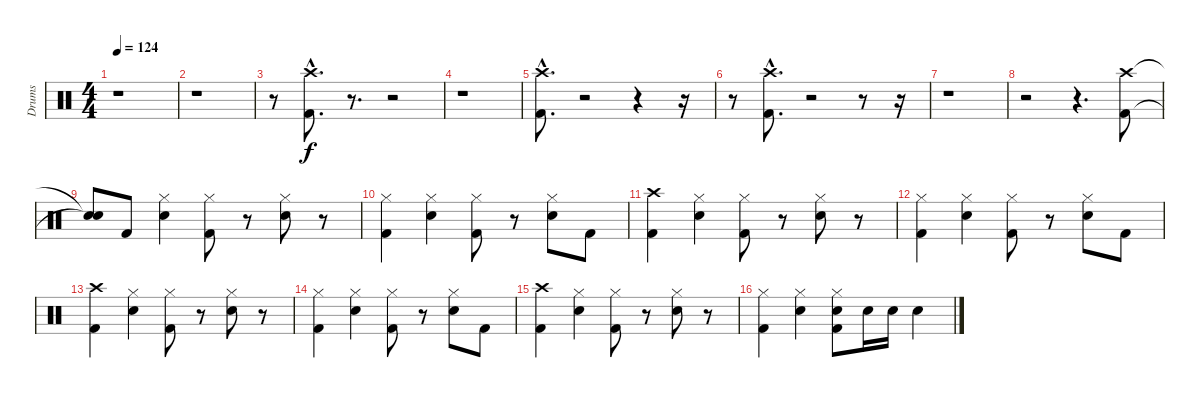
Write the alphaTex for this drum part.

\track ("Drums" "Drums") {instrument percussion}
\staff {score}
\articulation defaults
\ts (4 4)
\tempo 124
\clef neutral
\ks c
r.1{dy f} |
r.1 |
r.8 ("Crash high (hit)"{hac} "Kick (hit) 2"{hac}).8{d} r.8{d} r.2 |
r.1 |
("Crash high (hit)"{hac} "Kick (hit) 2"{hac}).8{d} r.2 r.4 r.16 |
r.8 ("Crash high (hit)"{hac} "Kick (hit) 2"{hac}).8{d} r.2 r.8 r.16 |
r.1 |
r.2 r.4{d} ("Crash high (hit)" "Kick (hit) 2").8 |
("Snare (hit)"{t} "Snare (hit)"{t}).8 "Kick (hit) 2".8 ("Hi-Hat (closed)" "Snare (hit) 2").4 ("Hi-Hat (closed)" "Kick (hit) 2").8 r.8 ("Hi-Hat (closed)" "Snare (hit) 2").8 r.8 |
("Hi-Hat (closed)" "Kick (hit) 2").4 ("Hi-Hat (closed)" "Snare (hit) 2").4 ("Hi-Hat (closed)" "Kick (hit) 2").8 r.8 ("Hi-Hat (closed)" "Snare (hit) 2").8 "Kick (hit) 2".8 |
("Crash high (hit)" "Kick (hit) 2").4 ("Hi-Hat (closed)" "Snare (hit) 2").4 ("Hi-Hat (closed)" "Kick (hit) 2").8 r.8 ("Hi-Hat (closed)" "Snare (hit) 2").8 r.8 |
("Hi-Hat (closed)" "Kick (hit) 2").4 ("Hi-Hat (closed)" "Snare (hit) 2").4 ("Hi-Hat (closed)" "Kick (hit) 2").8 r.8 ("Hi-Hat (closed)" "Snare (hit) 2").8 "Kick (hit) 2".8 |
("Crash high (hit)" "Kick (hit) 2").4 ("Hi-Hat (closed)" "Snare (hit) 2").4 ("Hi-Hat (closed)" "Kick (hit) 2").8 r.8 ("Hi-Hat (closed)" "Snare (hit) 2").8 r.8 |
("Hi-Hat (closed)" "Kick (hit) 2").4 ("Hi-Hat (closed)" "Snare (hit) 2").4 ("Hi-Hat (closed)" "Kick (hit) 2").8 r.8 ("Hi-Hat (closed)" "Snare (hit) 2").8 "Kick (hit) 2".8 |
("Crash high (hit)" "Kick (hit) 2").4 ("Hi-Hat (closed)" "Snare (hit) 2").4 ("Hi-Hat (closed)" "Kick (hit) 2").8 r.8 ("Hi-Hat (closed)" "Snare (hit) 2").8 r.8 |
("Hi-Hat (closed)" "Kick (hit) 2").4 ("Hi-Hat (closed)" "Snare (hit) 2").4 ("Hi-Hat (closed)" "Snare (hit) 2" "Kick (hit) 2").8 "Snare (hit) 2".16 "Snare (hit) 2".16 "Snare (hit) 2".4
